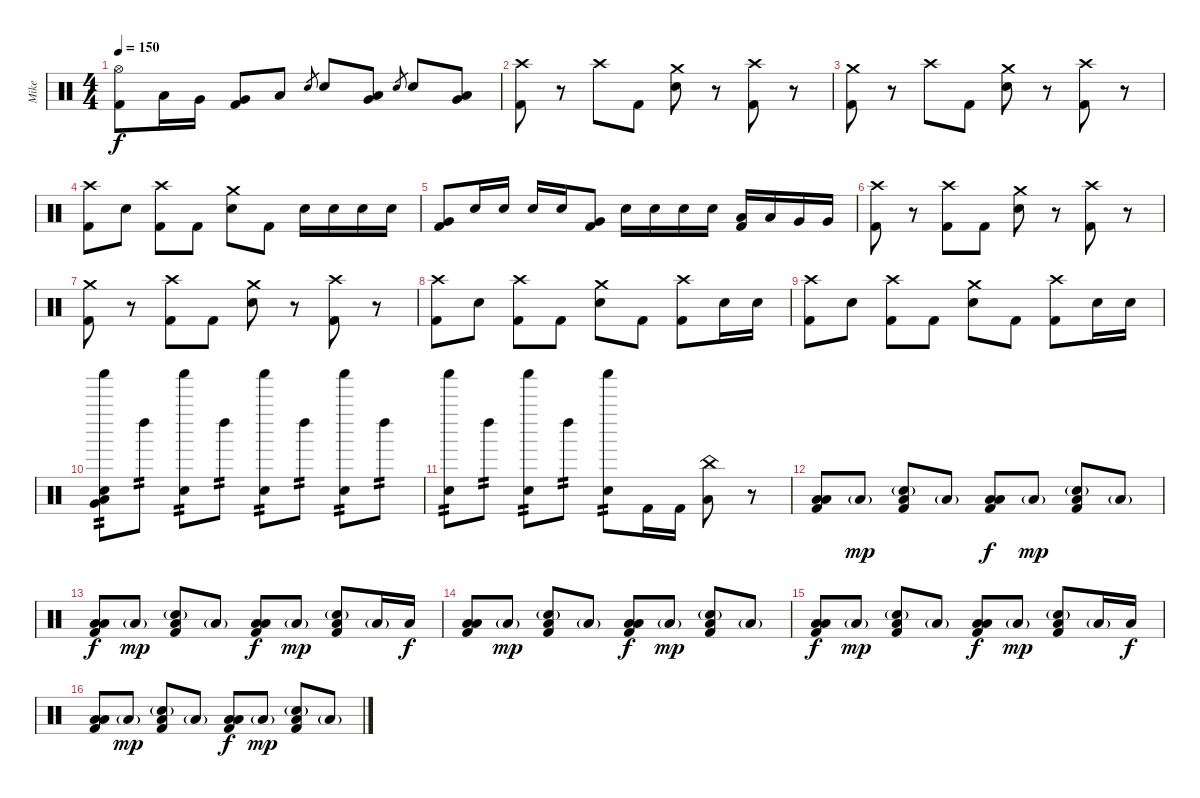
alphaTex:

\track ("Mike" "Mike") {instrument percussion}
\staff {score}
\articulation defaults
\ts (4 4)
\tempo 150
\clef neutral
\ks c
("Hi-Hat (open)" "Kick (hit) 2").8{dy f} "Low Tom (hit)".16 "Very Low Tom (hit)".16 ("Very Low Tom (hit)" "Kick (hit) 2").8 "Low Tom (hit)".8 "Electric Snare (hit)".8{gr} "Electric Snare (hit)".8 ("Very Low Tom (hit)" "Low Tom (hit)").8 "Electric Snare (hit)".8{gr} "Electric Snare (hit)".8 ("Very Low Tom (hit)" "Low Tom (hit)").8 |
("Crash high (hit)" "Kick (hit) 2").8 r.8 "Crash high (hit)".8 "Kick (hit) 2".8 ("Crash medium (hit)" "Electric Snare (hit)").8 r.8 ("Crash high (hit)" "Kick (hit) 2").8 r.8 |
("Crash medium (hit)" "Kick (hit) 2").8 r.8 "Crash high (hit)".8 "Kick (hit) 2".8 ("Crash medium (hit)" "Electric Snare (hit)").8 r.8 ("Crash high (hit)" "Kick (hit) 2").8 r.8 |
("Crash high (hit)" "Kick (hit) 2").8 "Electric Snare (hit)".8 ("Crash high (hit)" "Kick (hit) 2").8 "Kick (hit) 2".8 ("Crash medium (hit)" "Electric Snare (hit)").8 "Kick (hit) 2".8 "Electric Snare (hit)".16 "Electric Snare (hit)".16 "Electric Snare (hit)".16 "Electric Snare (hit)".16 |
("Very Low Tom (hit)" "Kick (hit) 2").8 "Electric Snare (hit)".16 "Electric Snare (hit)".16 "Electric Snare (hit)".16 "Electric Snare (hit)".16 ("Very Low Tom (hit)" "Kick (hit) 2").8 "Electric Snare (hit)".16 "Electric Snare (hit)".16 "Electric Snare (hit)".16 "Electric Snare (hit)".16 ("Low Tom (hit)" "Kick (hit) 2").16 "Low Tom (hit)".16 "Very Low Tom (hit)".16 "Very Low Tom (hit)".16 |
("Crash high (hit)" "Kick (hit) 2").8 r.8 ("Crash high (hit)" "Kick (hit) 2").8 "Kick (hit) 2".8 ("Crash medium (hit)" "Electric Snare (hit)").8 r.8 ("Crash high (hit)" "Kick (hit) 2").8 r.8 |
("Crash medium (hit)" "Kick (hit) 2").8 r.8 ("Crash high (hit)" "Kick (hit) 2").8 "Kick (hit) 2".8 ("Crash medium (hit)" "Electric Snare (hit)").8 r.8 ("Crash high (hit)" "Kick (hit) 2").8 r.8 |
("Crash high (hit)" "Kick (hit) 2").8 "Electric Snare (hit)".8 ("Crash high (hit)" "Kick (hit) 2").8 "Kick (hit) 2".8 ("Crash medium (hit)" "Electric Snare (hit)").8 "Kick (hit) 2".8 ("Crash high (hit)" "Kick (hit) 2").8 "Electric Snare (hit)".16 "Electric Snare (hit)".16 |
("Crash high (hit)" "Kick (hit) 2").8 "Electric Snare (hit)".8 ("Crash high (hit)" "Kick (hit) 2").8 "Kick (hit) 2".8 ("Crash medium (hit)" "Electric Snare (hit)").8 "Kick (hit) 2".8 ("Crash high (hit)" "Kick (hit) 2").8 "Electric Snare (hit)".16 "Electric Snare (hit)".16 |
("Shaker (hit)" "Hand Clap (hit)" "Low Tom (hit)" "Very Low Tom (hit)").8{tp 2} "Left Maraca (hit)".8{tp 2} ("Shaker (hit)" "Hand Clap (hit)").8{tp 2} "Left Maraca (hit)".8{tp 2} ("Shaker (hit)" "Hand Clap (hit)").8{tp 2} "Left Maraca (hit)".8{tp 2} ("Shaker (hit)" "Hand Clap (hit)").8{tp 2} "Left Maraca (hit)".8{tp 2} |
("Shaker (hit)" "Hand Clap (hit)").8{tp 2} "Left Maraca (hit)".8{tp 2} ("Shaker (hit)" "Hand Clap (hit)").8{tp 2} "Left Maraca (hit)".8{tp 2} ("Shaker (hit)" "Hand Clap (hit)").8{tp 2} "Kick (hit) 2".16 "Kick (hit) 2".16 ("China (hit)" "Low Tom (hit)").8 r.8 |
("Low Floor Tom (hit)" "Low Tom (hit)" "Kick (hit) 2").8 "Low Floor Tom (hit)"{g}.8{dy mp} ("Low Floor Tom (hit)" "Electric Snare (hit)"{g} "Kick (hit) 2").8 "Low Floor Tom (hit)"{g}.8 ("Low Floor Tom (hit)" "Low Tom (hit)" "Kick (hit) 2").8{dy f} "Low Floor Tom (hit)"{g}.8{dy mp} ("Low Floor Tom (hit)" "Electric Snare (hit)"{g} "Kick (hit) 2").8 "Low Floor Tom (hit)"{g}.8 |
("Low Floor Tom (hit)" "Low Tom (hit)" "Kick (hit) 2").8{dy f} "Low Floor Tom (hit)"{g}.8{dy mp} ("Low Floor Tom (hit)" "Electric Snare (hit)"{g} "Kick (hit) 2").8 "Low Floor Tom (hit)"{g}.8 ("Low Floor Tom (hit)" "Low Tom (hit)" "Kick (hit) 2").8{dy f} "Low Floor Tom (hit)"{g}.8{dy mp} ("Low Floor Tom (hit)" "Electric Snare (hit)"{g} "Kick (hit) 2").8 "Low Floor Tom (hit)"{g}.16 "Low Floor Tom (hit)".16{dy f} |
("Low Floor Tom (hit)" "Low Tom (hit)" "Kick (hit) 2").8 "Low Floor Tom (hit)"{g}.8{dy mp} ("Low Floor Tom (hit)" "Electric Snare (hit)"{g} "Kick (hit) 2").8 "Low Floor Tom (hit)"{g}.8 ("Low Floor Tom (hit)" "Low Tom (hit)" "Kick (hit) 2").8{dy f} "Low Floor Tom (hit)"{g}.8{dy mp} ("Low Floor Tom (hit)" "Electric Snare (hit)"{g} "Kick (hit) 2").8 "Low Floor Tom (hit)"{g}.8 |
("Low Floor Tom (hit)" "Low Tom (hit)" "Kick (hit) 2").8{dy f} "Low Floor Tom (hit)"{g}.8{dy mp} ("Low Floor Tom (hit)" "Electric Snare (hit)"{g} "Kick (hit) 2").8 "Low Floor Tom (hit)"{g}.8 ("Low Floor Tom (hit)" "Low Tom (hit)" "Kick (hit) 2").8{dy f} "Low Floor Tom (hit)"{g}.8{dy mp} ("Low Floor Tom (hit)" "Electric Snare (hit)"{g} "Kick (hit) 2").8 "Low Floor Tom (hit)"{g}.16 "Low Floor Tom (hit)".16{dy f} |
("Low Floor Tom (hit)" "Low Tom (hit)" "Kick (hit) 2").8 "Low Floor Tom (hit)"{g}.8{dy mp} ("Low Floor Tom (hit)" "Electric Snare (hit)"{g} "Kick (hit) 2").8 "Low Floor Tom (hit)"{g}.8 ("Low Floor Tom (hit)" "Low Tom (hit)" "Kick (hit) 2").8{dy f} "Low Floor Tom (hit)"{g}.8{dy mp} ("Low Floor Tom (hit)" "Electric Snare (hit)"{g} "Kick (hit) 2").8 "Low Floor Tom (hit)"{g}.8
